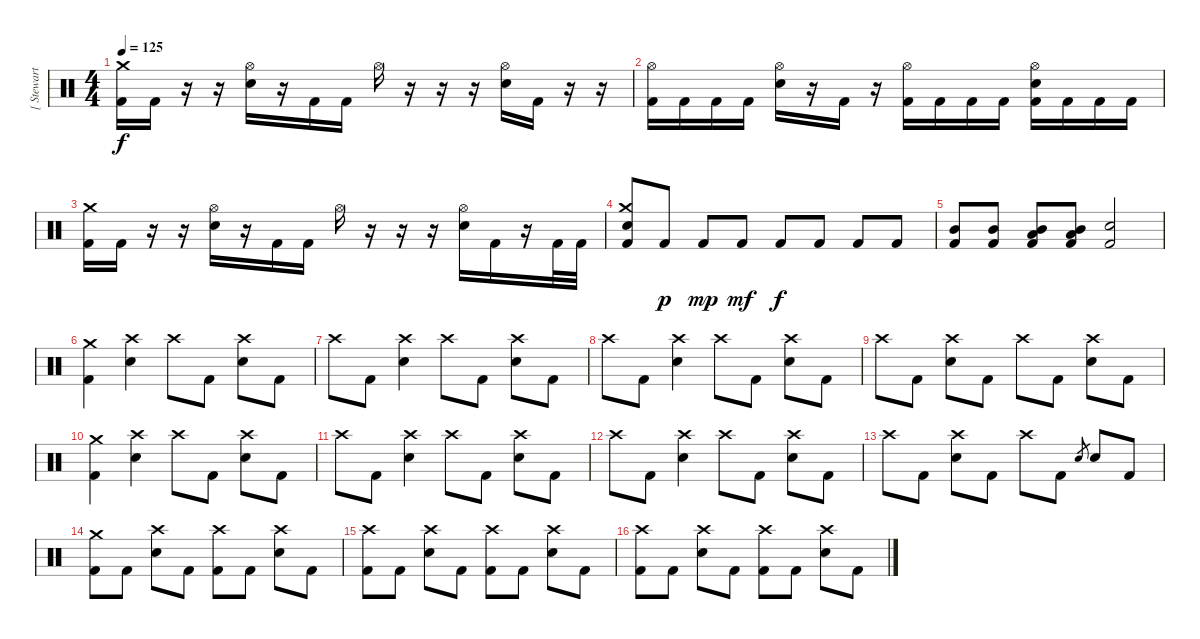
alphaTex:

\track ("[ Stewart ]" "[ Stewart ") {instrument percussion}
\staff {score}
\articulation defaults
\ts (4 4)
\tempo 125
\clef neutral
\ks c
("Kick (hit) 2" "Crash medium (hit)").16{dy f} "Kick (hit) 2".16 r.16 r.16 ("Electric Snare (hit)" "Hi-Hat (open)").16 r.16 "Kick (hit) 2".16 "Kick (hit) 2".16 "Hi-Hat (open)".16 r.16 r.16 r.16 ("Electric Snare (hit)" "Hi-Hat (open)").16 "Kick (hit) 2".16 r.16 r.16 |
("Kick (hit) 2" "Hi-Hat (open)").16 "Kick (hit) 2".16 "Kick (hit) 2".16 "Kick (hit) 2".16 ("Electric Snare (hit)" "Hi-Hat (open)").16 r.16 "Kick (hit) 2".16 r.16 ("Kick (hit) 2" "Hi-Hat (open)").16 "Kick (hit) 2".16 "Kick (hit) 2".16 "Kick (hit) 2".16 ("Kick (hit) 2" "Electric Snare (hit)" "Hi-Hat (open)").16 "Kick (hit) 2".16 "Kick (hit) 2".16 "Kick (hit) 2".16 |
("Kick (hit) 2" "Crash medium (hit)").16 "Kick (hit) 2".16 r.16 r.16 ("Electric Snare (hit)" "Hi-Hat (open)").16 r.16 "Kick (hit) 2".16 "Kick (hit) 2".16 "Hi-Hat (open)".16 r.16 r.16 r.16 ("Electric Snare (hit)" "Hi-Hat (open)").16 "Kick (hit) 2".16 r.16 "Kick (hit) 2".32 "Kick (hit) 2".32 |
("Electric Snare (hit)" "Kick (hit) 2" "Crash medium (hit)").8 "Kick (hit) 2".8{dy p} "Kick (hit) 2".8{dy mp} "Kick (hit) 2".8{dy mf} "Kick (hit) 2".8{dy f} "Kick (hit) 2".8 "Kick (hit) 2".8 "Kick (hit) 2".8 |
("Kick (hit) 2" "Mid Tom (hit)").8 ("Kick (hit) 2" "Mid Tom (hit)").8 ("Kick (hit) 2" "Mid Tom (hit)" "Low Tom (hit)").8 ("Kick (hit) 2" "Mid Tom (hit)" "Low Tom (hit)").8 ("Kick (hit) 2" "Electric Snare (hit)").2 |
("Kick (hit) 2" "Crash medium (hit)").4 ("Electric Snare (hit)" "Crash high (hit)").4 "Crash high (hit)".8 "Kick (hit) 2".8 ("Electric Snare (hit)" "Crash high (hit)").8 "Kick (hit) 2".8 |
"Crash high (hit)".8 "Kick (hit) 2".8 ("Electric Snare (hit)" "Crash high (hit)").4 "Crash high (hit)".8 "Kick (hit) 2".8 ("Electric Snare (hit)" "Crash high (hit)").8 "Kick (hit) 2".8 |
"Crash high (hit)".8 "Kick (hit) 2".8 ("Electric Snare (hit)" "Crash high (hit)").4 "Crash high (hit)".8 "Kick (hit) 2".8 ("Electric Snare (hit)" "Crash high (hit)").8 "Kick (hit) 2".8 |
"Crash high (hit)".8 "Kick (hit) 2".8 ("Electric Snare (hit)" "Crash high (hit)").8 "Kick (hit) 2".8 "Crash high (hit)".8 "Kick (hit) 2".8 ("Electric Snare (hit)" "Crash high (hit)").8 "Kick (hit) 2".8 |
("Kick (hit) 2" "Crash medium (hit)").4 ("Electric Snare (hit)" "Crash high (hit)").4 "Crash high (hit)".8 "Kick (hit) 2".8 ("Electric Snare (hit)" "Crash high (hit)").8 "Kick (hit) 2".8 |
"Crash high (hit)".8 "Kick (hit) 2".8 ("Electric Snare (hit)" "Crash high (hit)").4 "Crash high (hit)".8 "Kick (hit) 2".8 ("Electric Snare (hit)" "Crash high (hit)").8 "Kick (hit) 2".8 |
"Crash high (hit)".8 "Kick (hit) 2".8 ("Electric Snare (hit)" "Crash high (hit)").4 "Crash high (hit)".8 "Kick (hit) 2".8 ("Electric Snare (hit)" "Crash high (hit)").8 "Kick (hit) 2".8 |
"Crash high (hit)".8 "Kick (hit) 2".8 ("Electric Snare (hit)" "Crash high (hit)").8 "Kick (hit) 2".8 "Crash high (hit)".8 "Kick (hit) 2".8 "Electric Snare (hit)".8{gr} "Electric Snare (hit)".8 "Kick (hit) 2".8 |
("Kick (hit) 2" "Crash medium (hit)").8 "Kick (hit) 2".8 ("Electric Snare (hit)" "Crash high (hit)").8 "Kick (hit) 2".8 ("Kick (hit) 2" "Crash high (hit)").8 "Kick (hit) 2".8 ("Electric Snare (hit)" "Crash high (hit)").8 "Kick (hit) 2".8 |
("Kick (hit) 2" "Crash high (hit)").8 "Kick (hit) 2".8 ("Electric Snare (hit)" "Crash high (hit)").8 "Kick (hit) 2".8 ("Kick (hit) 2" "Crash high (hit)").8 "Kick (hit) 2".8 ("Electric Snare (hit)" "Crash high (hit)").8 "Kick (hit) 2".8 |
("Kick (hit) 2" "Crash high (hit)").8 "Kick (hit) 2".8 ("Electric Snare (hit)" "Crash high (hit)").8 "Kick (hit) 2".8 ("Kick (hit) 2" "Crash high (hit)").8 "Kick (hit) 2".8 ("Electric Snare (hit)" "Crash high (hit)").8 "Kick (hit) 2".8
